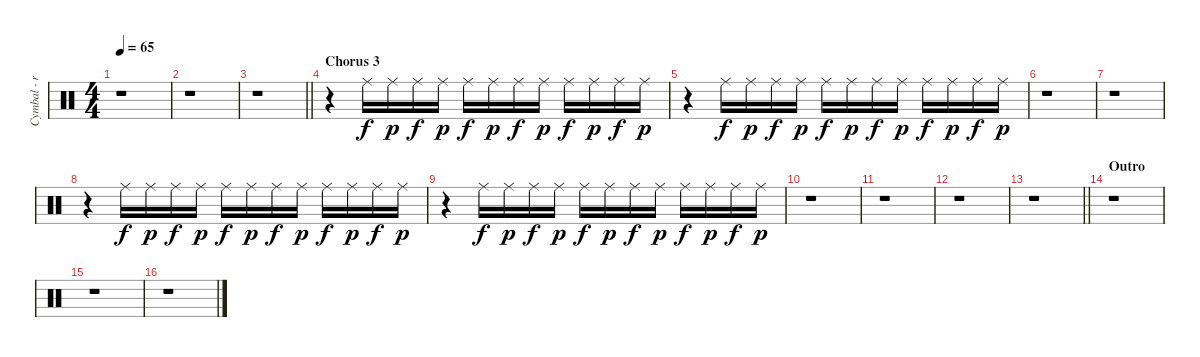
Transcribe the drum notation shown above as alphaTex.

\track ("Cymbal - ride" "Cymbal - r") {instrument percussion}
\staff {score}
\articulation defaults
\ts (4 4)
\tempo 65
\clef neutral
\ks c
r.1{dy f} |
r.1 |
\barLineRight lightlight
r.1 |
\section ("" "Chorus 3")
r.4 "Ride (middle)".16 "Ride (middle)".16{dy p} "Ride (middle)".16{dy f} "Ride (middle)".16{dy p} "Ride (middle)".16{dy f} "Ride (middle)".16{dy p} "Ride (middle)".16{dy f} "Ride (middle)".16{dy p} "Ride (middle)".16{dy f} "Ride (middle)".16{dy p} "Ride (middle)".16{dy f} "Ride (middle)".16{dy p} |
r.4 "Ride (middle)".16{dy f} "Ride (middle)".16{dy p} "Ride (middle)".16{dy f} "Ride (middle)".16{dy p} "Ride (middle)".16{dy f} "Ride (middle)".16{dy p} "Ride (middle)".16{dy f} "Ride (middle)".16{dy p} "Ride (middle)".16{dy f} "Ride (middle)".16{dy p} "Ride (middle)".16{dy f} "Ride (middle)".16{dy p} |
r.1 |
r.1 |
r.4 "Ride (middle)".16{dy f} "Ride (middle)".16{dy p} "Ride (middle)".16{dy f} "Ride (middle)".16{dy p} "Ride (middle)".16{dy f} "Ride (middle)".16{dy p} "Ride (middle)".16{dy f} "Ride (middle)".16{dy p} "Ride (middle)".16{dy f} "Ride (middle)".16{dy p} "Ride (middle)".16{dy f} "Ride (middle)".16{dy p} |
r.4 "Ride (middle)".16{dy f} "Ride (middle)".16{dy p} "Ride (middle)".16{dy f} "Ride (middle)".16{dy p} "Ride (middle)".16{dy f} "Ride (middle)".16{dy p} "Ride (middle)".16{dy f} "Ride (middle)".16{dy p} "Ride (middle)".16{dy f} "Ride (middle)".16{dy p} "Ride (middle)".16{dy f} "Ride (middle)".16{dy p} |
r.1 |
r.1 |
r.1 |
\barLineRight lightlight
r.1 |
\section ("" "Outro")
r.1 |
r.1 |
r.1
